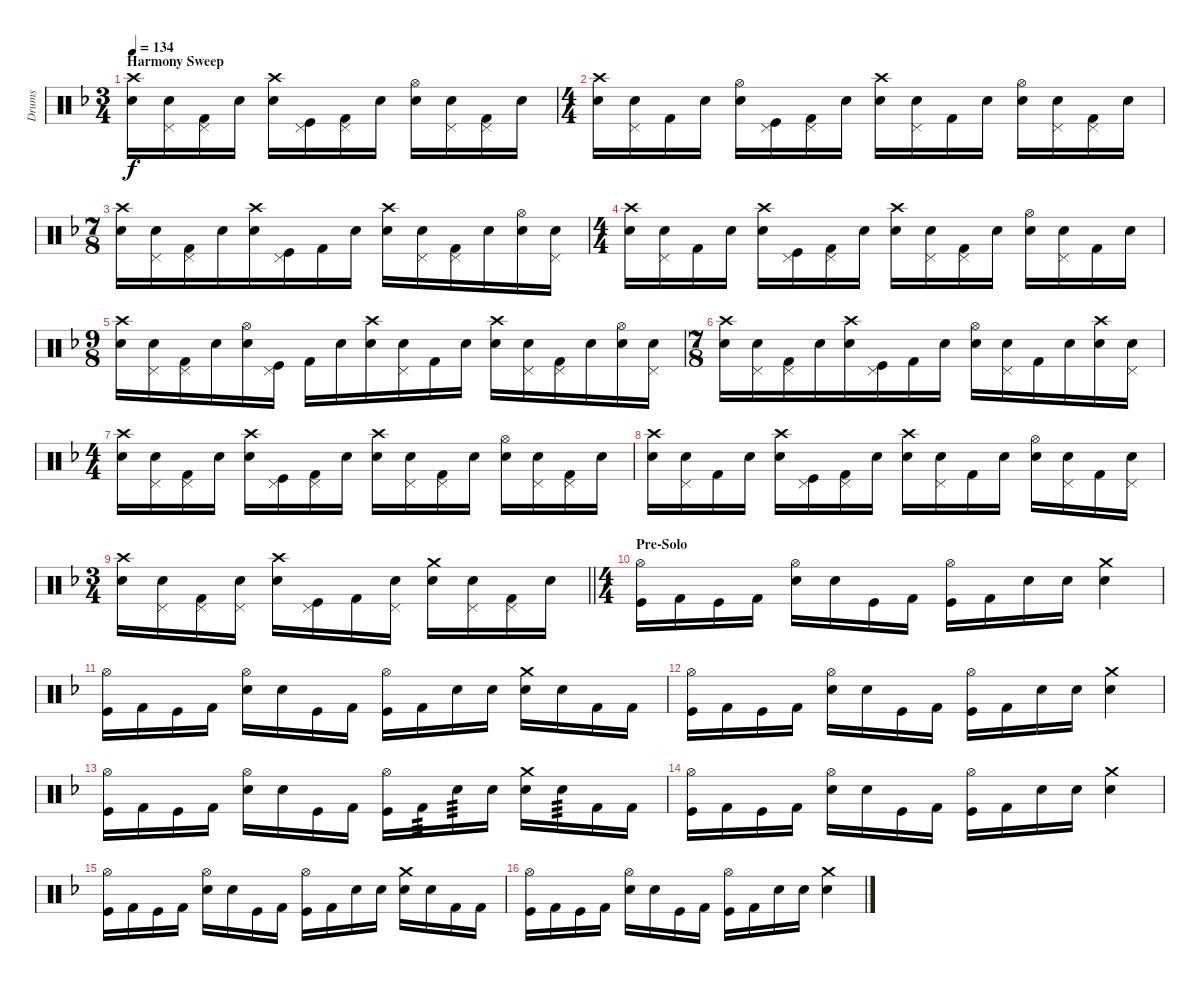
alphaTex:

\track ("Drums" "Drums") {instrument percussion}
\staff {score}
\articulation defaults
\ts (3 4)
\section ("" "Harmony Sweep")
\tempo 134
\clef neutral
\ks f
("Electric Snare (hit)" "Crash high (hit)").16{dy f} ("Snare (hit) 2" "Pedal Hi-Hat (hit)").16 ("Kick (hit) 2" "Pedal Hi-Hat (hit)").16 "Snare (hit) 2".16 ("Electric Snare (hit)" "Crash high (hit)").16 ("Kick (hit)" "Pedal Hi-Hat (hit)").16 ("Kick (hit) 2" "Pedal Hi-Hat (hit)").16 "Snare (hit) 2".16 ("Electric Snare (hit)" "Hi-Hat (open)").16 ("Snare (hit) 2" "Pedal Hi-Hat (hit)").16 ("Kick (hit) 2" "Pedal Hi-Hat (hit)").16 "Electric Snare (hit)".16 |
\ts (4 4)
("Electric Snare (hit)" "Crash high (hit)").16 ("Snare (hit) 2" "Pedal Hi-Hat (hit)").16 "Kick (hit) 2".16 "Snare (hit) 2".16 ("Electric Snare (hit)" "Hi-Hat (open)").16 ("Kick (hit)" "Pedal Hi-Hat (hit)").16 ("Kick (hit) 2" "Pedal Hi-Hat (hit)").16 "Snare (hit) 2".16 ("Electric Snare (hit)" "Crash high (hit)").16 ("Snare (hit) 2" "Pedal Hi-Hat (hit)").16 "Kick (hit) 2".16 "Electric Snare (hit)".16 ("Electric Snare (hit)" "Hi-Hat (open)").16 ("Snare (hit) 2" "Pedal Hi-Hat (hit)").16 ("Kick (hit) 2" "Pedal Hi-Hat (hit)").16 "Electric Snare (hit)".16 |
\ts (7 8)
("Electric Snare (hit)" "Crash high (hit)").16 ("Snare (hit) 2" "Pedal Hi-Hat (hit)").16 ("Kick (hit) 2" "Pedal Hi-Hat (hit)").16 "Snare (hit) 2".16 ("Electric Snare (hit)" "Crash high (hit)").16 ("Kick (hit)" "Pedal Hi-Hat (hit)").16 "Kick (hit) 2".16 "Snare (hit) 2".16 ("Electric Snare (hit)" "Crash high (hit)").16 ("Snare (hit) 2" "Pedal Hi-Hat (hit)").16 ("Kick (hit) 2" "Pedal Hi-Hat (hit)").16 "Electric Snare (hit)".16 ("Electric Snare (hit)" "Hi-Hat (open)").16 ("Snare (hit) 2" "Pedal Hi-Hat (hit)").16 |
\ts (4 4)
("Electric Snare (hit)" "Crash high (hit)").16 ("Snare (hit) 2" "Pedal Hi-Hat (hit)").16 "Kick (hit) 2".16 "Snare (hit) 2".16 ("Electric Snare (hit)" "Crash high (hit)").16 ("Kick (hit)" "Pedal Hi-Hat (hit)").16 ("Kick (hit) 2" "Pedal Hi-Hat (hit)").16 "Snare (hit) 2".16 ("Electric Snare (hit)" "Crash high (hit)").16 ("Snare (hit) 2" "Pedal Hi-Hat (hit)").16 ("Kick (hit) 2" "Pedal Hi-Hat (hit)").16 "Electric Snare (hit)".16 ("Electric Snare (hit)" "Hi-Hat (open)").16 ("Snare (hit) 2" "Pedal Hi-Hat (hit)").16 "Kick (hit) 2".16 "Electric Snare (hit)".16 |
\ts (9 8)
("Electric Snare (hit)" "Crash high (hit)").16 ("Snare (hit) 2" "Pedal Hi-Hat (hit)").16 ("Kick (hit) 2" "Pedal Hi-Hat (hit)").16 "Snare (hit) 2".16 ("Electric Snare (hit)" "Hi-Hat (open)").16 ("Kick (hit)" "Pedal Hi-Hat (hit)").16 "Kick (hit) 2".16 "Snare (hit) 2".16 ("Electric Snare (hit)" "Crash high (hit)").16 ("Snare (hit) 2" "Pedal Hi-Hat (hit)").16 "Kick (hit) 2".16 "Electric Snare (hit)".16 ("Electric Snare (hit)" "Crash high (hit)").16 ("Snare (hit) 2" "Pedal Hi-Hat (hit)").16 ("Kick (hit) 2" "Pedal Hi-Hat (hit)").16 "Electric Snare (hit)".16 ("Electric Snare (hit)" "Hi-Hat (open)").16 ("Snare (hit) 2" "Pedal Hi-Hat (hit)").16 |
\ts (7 8)
("Electric Snare (hit)" "Crash high (hit)").16 ("Snare (hit) 2" "Pedal Hi-Hat (hit)").16 ("Kick (hit) 2" "Pedal Hi-Hat (hit)").16 "Snare (hit) 2".16 ("Electric Snare (hit)" "Crash high (hit)").16 ("Kick (hit)" "Pedal Hi-Hat (hit)").16 "Kick (hit) 2".16 "Snare (hit) 2".16 ("Electric Snare (hit)" "Hi-Hat (open)").16 ("Snare (hit) 2" "Pedal Hi-Hat (hit)").16 "Kick (hit) 2".16 "Electric Snare (hit)".16 ("Electric Snare (hit)" "Crash high (hit)").16 ("Snare (hit) 2" "Pedal Hi-Hat (hit)").16 |
\ts (4 4)
("Electric Snare (hit)" "Crash high (hit)").16 ("Snare (hit) 2" "Pedal Hi-Hat (hit)").16 ("Kick (hit) 2" "Pedal Hi-Hat (hit)").16 "Snare (hit) 2".16 ("Electric Snare (hit)" "Crash high (hit)").16 ("Kick (hit)" "Pedal Hi-Hat (hit)").16 ("Kick (hit) 2" "Pedal Hi-Hat (hit)").16 "Snare (hit) 2".16 ("Electric Snare (hit)" "Crash high (hit)").16 ("Snare (hit) 2" "Pedal Hi-Hat (hit)").16 ("Kick (hit) 2" "Pedal Hi-Hat (hit)").16 "Electric Snare (hit)".16 ("Electric Snare (hit)" "Hi-Hat (open)").16 ("Snare (hit) 2" "Pedal Hi-Hat (hit)").16 ("Kick (hit) 2" "Pedal Hi-Hat (hit)").16 "Electric Snare (hit)".16 |
("Electric Snare (hit)" "Crash high (hit)").16 ("Snare (hit) 2" "Pedal Hi-Hat (hit)").16 "Kick (hit) 2".16 "Snare (hit) 2".16 ("Electric Snare (hit)" "Crash high (hit)").16 ("Kick (hit)" "Pedal Hi-Hat (hit)").16 ("Kick (hit) 2" "Pedal Hi-Hat (hit)").16 "Snare (hit) 2".16 ("Electric Snare (hit)" "Crash high (hit)").16 ("Snare (hit) 2" "Pedal Hi-Hat (hit)").16 "Kick (hit) 2".16 "Electric Snare (hit)".16 ("Electric Snare (hit)" "Hi-Hat (open)").16 ("Snare (hit) 2" "Pedal Hi-Hat (hit)").16 "Kick (hit) 2".16 ("Electric Snare (hit)" "Pedal Hi-Hat (hit)").16 |
\ts (3 4)
\barLineRight lightlight
("Electric Snare (hit)" "Crash high (hit)").16 ("Snare (hit) 2" "Pedal Hi-Hat (hit)").16 ("Kick (hit) 2" "Pedal Hi-Hat (hit)").16 ("Snare (hit) 2" "Pedal Hi-Hat (hit)").16 ("Electric Snare (hit)" "Crash high (hit)").16 ("Kick (hit)" "Pedal Hi-Hat (hit)").16 "Kick (hit) 2".16 ("Snare (hit) 2" "Pedal Hi-Hat (hit)").16 ("Electric Snare (hit)" "Crash medium (hit)").16 ("Snare (hit) 2" "Pedal Hi-Hat (hit)").16 ("Kick (hit) 2" "Pedal Hi-Hat (hit)").16 "Electric Snare (hit)".16 |
\ts (4 4)
\section ("" "Pre-Solo")
("Kick (hit)" "Hi-Hat (open)").16 "Kick (hit) 2".16 "Kick (hit)".16 "Kick (hit) 2".16 ("Electric Snare (hit)" "Hi-Hat (open)").16 "Electric Snare (hit)".16 "Kick (hit)".16 "Kick (hit) 2".16 ("Kick (hit)" "Hi-Hat (open)").16 "Kick (hit) 2".16 "Electric Snare (hit)".16 "Electric Snare (hit)".16 ("Snare (hit) 2" "Crash medium (hit)").4 |
("Kick (hit)" "Hi-Hat (open)").16 "Kick (hit) 2".16 "Kick (hit)".16 "Kick (hit) 2".16 ("Electric Snare (hit)" "Hi-Hat (open)").16 "Electric Snare (hit)".16 "Kick (hit)".16 "Kick (hit) 2".16 ("Kick (hit)" "Hi-Hat (open)").16 "Kick (hit) 2".16 "Electric Snare (hit)".16 "Electric Snare (hit)".16 ("Electric Snare (hit)" "Crash medium (hit)").16 "Snare (hit) 2".16 "Kick (hit) 2".16 "Kick (hit) 2".16 |
("Kick (hit)" "Hi-Hat (open)").16 "Kick (hit) 2".16 "Kick (hit)".16 "Kick (hit) 2".16 ("Electric Snare (hit)" "Hi-Hat (open)").16 "Electric Snare (hit)".16 "Kick (hit)".16 "Kick (hit) 2".16 ("Kick (hit)" "Hi-Hat (open)").16 "Kick (hit) 2".16 "Electric Snare (hit)".16 "Electric Snare (hit)".16 ("Snare (hit) 2" "Crash medium (hit)").4 |
("Kick (hit)" "Hi-Hat (open)").16 "Kick (hit) 2".16 "Kick (hit)".16 "Kick (hit) 2".16 ("Electric Snare (hit)" "Hi-Hat (open)").16 "Electric Snare (hit)".16 "Kick (hit)".16 "Kick (hit) 2".16 ("Kick (hit)" "Hi-Hat (open)").16 "Kick (hit) 2".16{tp 3} "Electric Snare (hit)".16{tp 3} "Electric Snare (hit)".16 ("Electric Snare (hit)" "Crash medium (hit)").16 "Snare (hit) 2".16{tp 3} "Kick (hit) 2".16 "Kick (hit) 2".16 |
("Kick (hit)" "Hi-Hat (open)").16 "Kick (hit) 2".16 "Kick (hit)".16 "Kick (hit) 2".16 ("Electric Snare (hit)" "Hi-Hat (open)").16 "Electric Snare (hit)".16 "Kick (hit)".16 "Kick (hit) 2".16 ("Kick (hit)" "Hi-Hat (open)").16 "Kick (hit) 2".16 "Electric Snare (hit)".16 "Electric Snare (hit)".16 ("Snare (hit) 2" "Crash medium (hit)").4 |
("Kick (hit)" "Hi-Hat (open)").16 "Kick (hit) 2".16 "Kick (hit)".16 "Kick (hit) 2".16 ("Electric Snare (hit)" "Hi-Hat (open)").16 "Electric Snare (hit)".16 "Kick (hit)".16 "Kick (hit) 2".16 ("Kick (hit)" "Hi-Hat (open)").16 "Kick (hit) 2".16 "Electric Snare (hit)".16 "Electric Snare (hit)".16 ("Electric Snare (hit)" "Crash medium (hit)").16 "Snare (hit) 2".16 "Kick (hit) 2".16 "Kick (hit) 2".16 |
("Kick (hit)" "Hi-Hat (open)").16 "Kick (hit) 2".16 "Kick (hit)".16 "Kick (hit) 2".16 ("Electric Snare (hit)" "Hi-Hat (open)").16 "Electric Snare (hit)".16 "Kick (hit)".16 "Kick (hit) 2".16 ("Kick (hit)" "Hi-Hat (open)").16 "Kick (hit) 2".16 "Electric Snare (hit)".16 "Electric Snare (hit)".16 ("Snare (hit) 2" "Crash medium (hit)").4
